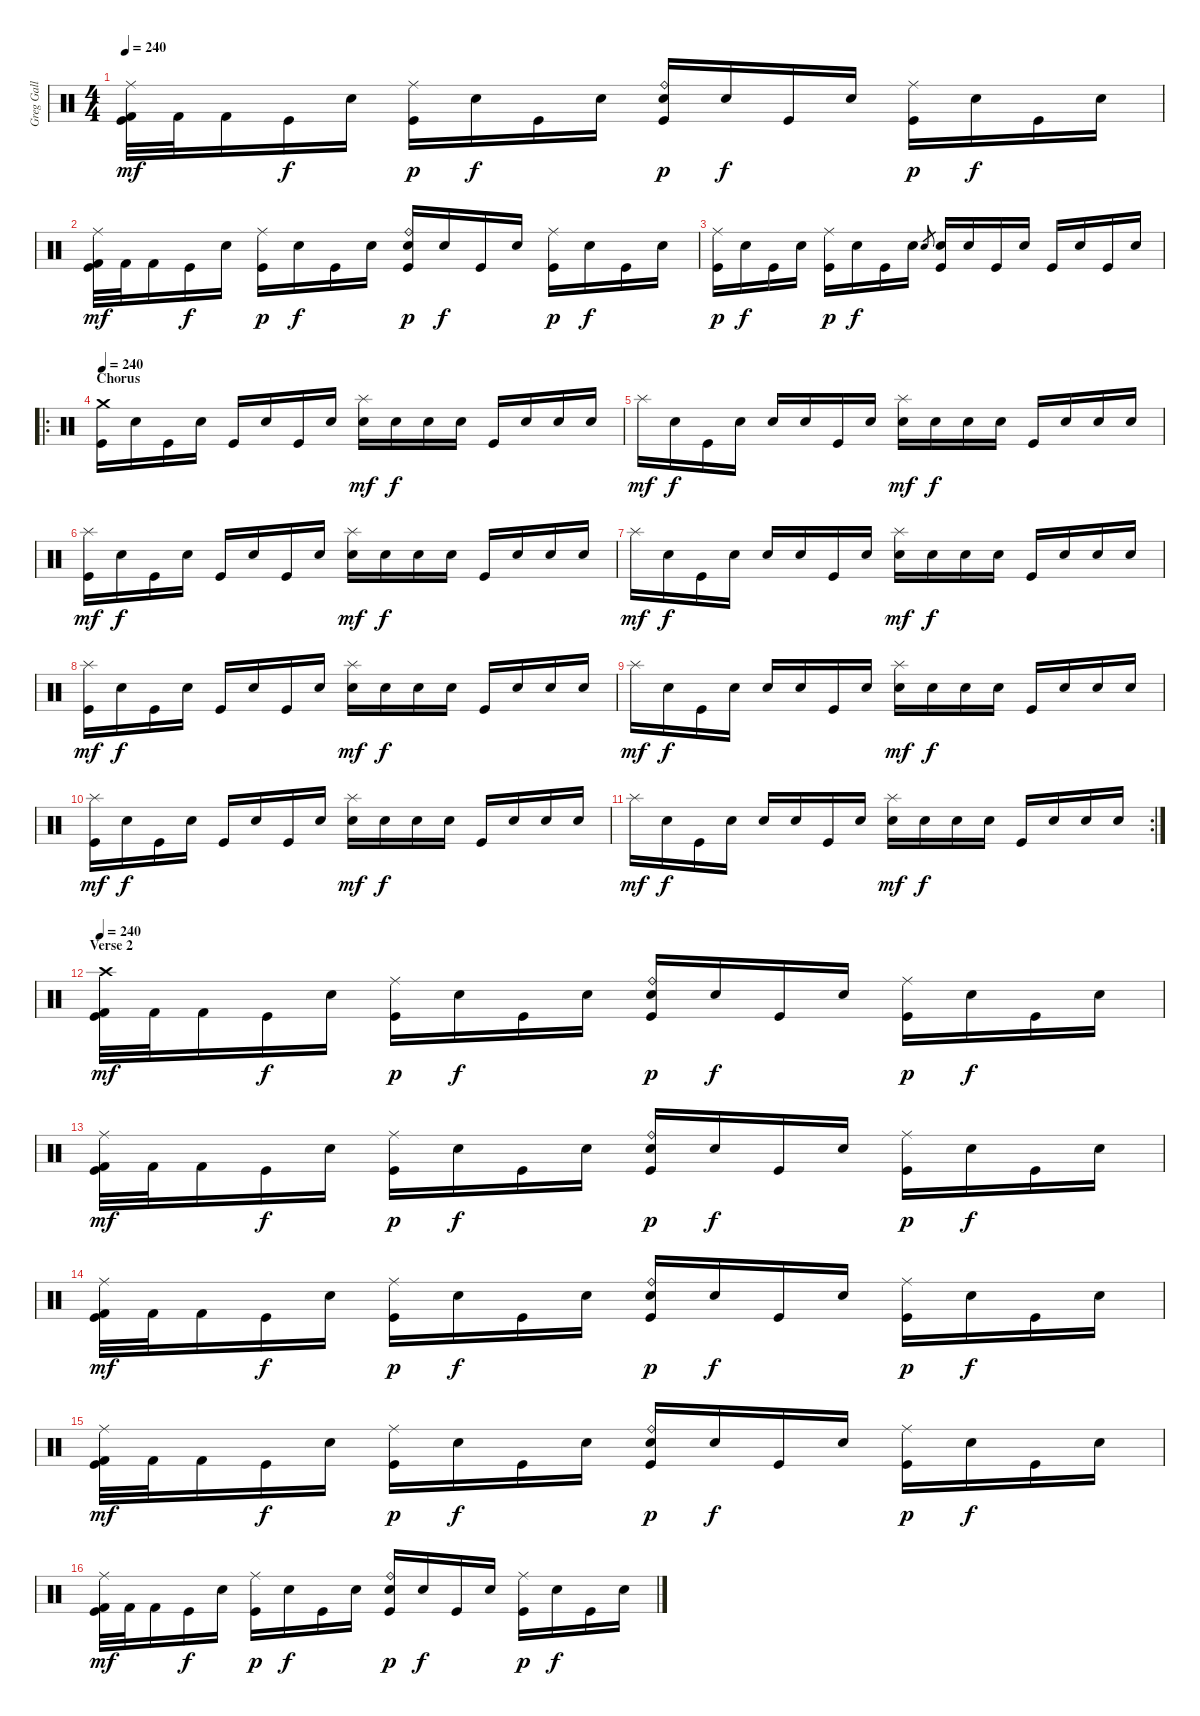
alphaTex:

\track ("Greg Gall - Drums" "Greg Gall ") {instrument percussion}
\staff {score}
\articulation defaults
\ts (4 4)
\tempo 240
\clef neutral
\ks c
("Ride (middle)" "Kick (hit) 2" "Kick (hit)").32{dy mf} "Kick (hit) 2".32 "Kick (hit) 2".16 "Kick (hit)".16{dy f} "Snare (hit)".16 ("Ride (middle)" "Kick (hit)").16{dy p} "Snare (hit)".16{dy f} "Kick (hit)".16 "Snare (hit)".16 ("Ride (bell)" "Electric Snare (hit)" "Kick (hit)").16{dy p} "Snare (hit)".16{dy f} "Kick (hit)".16 "Snare (hit)".16 ("Ride (middle)" "Kick (hit)").16{dy p} "Snare (hit)".16{dy f} "Kick (hit)".16 "Snare (hit)".16 |
("Ride (middle)" "Kick (hit) 2" "Kick (hit)").32{dy mf} "Kick (hit) 2".32 "Kick (hit) 2".16 "Kick (hit)".16{dy f} "Snare (hit)".16 ("Ride (middle)" "Kick (hit)").16{dy p} "Snare (hit)".16{dy f} "Kick (hit)".16 "Snare (hit)".16 ("Ride (bell)" "Electric Snare (hit)" "Kick (hit)").16{dy p} "Snare (hit)".16{dy f} "Kick (hit)".16 "Snare (hit)".16 ("Ride (middle)" "Kick (hit)").16{dy p} "Snare (hit)".16{dy f} "Kick (hit)".16 "Snare (hit)".16 |
("Ride (middle)" "Kick (hit)").16{dy p} "Snare (hit)".16{dy f} "Kick (hit)".16 "Snare (hit)".16 ("Ride (middle)" "Kick (hit)").16{dy p} "Snare (hit)".16{dy f} "Kick (hit)".16 "Snare (hit)".16 "Electric Snare (hit)".8{gr} ("Electric Snare (hit)" "Kick (hit)").16 "Snare (hit)".16 "Kick (hit)".16 "Snare (hit)".16 "Kick (hit)".16 "Snare (hit)".16 "Kick (hit)".16 "Snare (hit)".16 |
\ro
\section ("" "Chorus")
\tempo 240
("Crash medium (hit)" "Kick (hit)").16{volume 12 balance 8} "Snare (hit)".16 "Kick (hit)".16 "Snare (hit)".16 "Kick (hit)".16 "Snare (hit)".16 "Kick (hit)".16 "Snare (hit)".16 ("Splash (hit)" "Electric Snare (hit)").16{dy mf} "Snare (hit)".16{dy f} "Snare (hit)".16 "Snare (hit)".16 "Kick (hit)".16 "Snare (hit)".16 "Snare (hit)".16 "Snare (hit)".16 |
"Splash (hit)".16{dy mf} "Snare (hit)".16{dy f} "Kick (hit)".16 "Snare (hit)".16 "Snare (hit)".16 "Snare (hit)".16 "Kick (hit)".16 "Snare (hit)".16 ("Splash (hit)" "Electric Snare (hit)").16{dy mf} "Snare (hit)".16{dy f} "Snare (hit)".16 "Snare (hit)".16 "Kick (hit)".16 "Snare (hit)".16 "Snare (hit)".16 "Snare (hit)".16 |
("Splash (hit)" "Kick (hit)").16{dy mf} "Snare (hit)".16{dy f} "Kick (hit)".16 "Snare (hit)".16 "Kick (hit)".16 "Snare (hit)".16 "Kick (hit)".16 "Snare (hit)".16 ("Splash (hit)" "Electric Snare (hit)").16{dy mf} "Snare (hit)".16{dy f} "Snare (hit)".16 "Snare (hit)".16 "Kick (hit)".16 "Snare (hit)".16 "Snare (hit)".16 "Snare (hit)".16 |
"Splash (hit)".16{dy mf} "Snare (hit)".16{dy f} "Kick (hit)".16 "Snare (hit)".16 "Snare (hit)".16 "Snare (hit)".16 "Kick (hit)".16 "Snare (hit)".16 ("Splash (hit)" "Electric Snare (hit)").16{dy mf} "Snare (hit)".16{dy f} "Snare (hit)".16 "Snare (hit)".16 "Kick (hit)".16 "Snare (hit)".16 "Snare (hit)".16 "Snare (hit)".16 |
("Splash (hit)" "Kick (hit)").16{dy mf} "Snare (hit)".16{dy f} "Kick (hit)".16 "Snare (hit)".16 "Kick (hit)".16 "Snare (hit)".16 "Kick (hit)".16 "Snare (hit)".16 ("Splash (hit)" "Electric Snare (hit)").16{dy mf} "Snare (hit)".16{dy f} "Snare (hit)".16 "Snare (hit)".16 "Kick (hit)".16 "Snare (hit)".16 "Snare (hit)".16 "Snare (hit)".16 |
"Splash (hit)".16{dy mf} "Snare (hit)".16{dy f} "Kick (hit)".16 "Snare (hit)".16 "Snare (hit)".16 "Snare (hit)".16 "Kick (hit)".16 "Snare (hit)".16 ("Splash (hit)" "Electric Snare (hit)").16{dy mf} "Snare (hit)".16{dy f} "Snare (hit)".16 "Snare (hit)".16 "Kick (hit)".16 "Snare (hit)".16 "Snare (hit)".16 "Snare (hit)".16 |
("Splash (hit)" "Kick (hit)").16{dy mf} "Snare (hit)".16{dy f} "Kick (hit)".16 "Snare (hit)".16 "Kick (hit)".16 "Snare (hit)".16 "Kick (hit)".16 "Snare (hit)".16 ("Splash (hit)" "Electric Snare (hit)").16{dy mf} "Snare (hit)".16{dy f} "Snare (hit)".16 "Snare (hit)".16 "Kick (hit)".16 "Snare (hit)".16 "Snare (hit)".16 "Snare (hit)".16 |
\rc 2 "Splash (hit)".16{dy mf} "Snare (hit)".16{dy f} "Kick (hit)".16 "Snare (hit)".16 "Snare (hit)".16 "Snare (hit)".16 "Kick (hit)".16 "Snare (hit)".16
("Splash (hit)" "Electric Snare (hit)").16{dy mf} "Snare (hit)".16{dy f} "Snare (hit)".16 "Snare (hit)".16 "Kick (hit)".16 "Snare (hit)".16 "Snare (hit)".16 "Snare (hit)".16 |
\section ("" "Verse 2")
\tempo 240
("Crash high (hit)" "Kick (hit) 2" "Kick (hit)").32{dy mf volume 12 balance 8} "Kick (hit) 2".32 "Kick (hit) 2".16 "Kick (hit)".16{dy f} "Snare (hit)".16 ("Ride (middle)" "Kick (hit)").16{dy p} "Snare (hit)".16{dy f} "Kick (hit)".16 "Snare (hit)".16 ("Ride (bell)" "Electric Snare (hit)" "Kick (hit)").16{dy p} "Snare (hit)".16{dy f} "Kick (hit)".16 "Snare (hit)".16 ("Ride (middle)" "Kick (hit)").16{dy p} "Snare (hit)".16{dy f} "Kick (hit)".16 "Snare (hit)".16 |
("Ride (middle)" "Kick (hit) 2" "Kick (hit)").32{dy mf} "Kick (hit) 2".32 "Kick (hit) 2".16 "Kick (hit)".16{dy f} "Snare (hit)".16 ("Ride (middle)" "Kick (hit)").16{dy p} "Snare (hit)".16{dy f} "Kick (hit)".16 "Snare (hit)".16 ("Ride (bell)" "Electric Snare (hit)" "Kick (hit)").16{dy p} "Snare (hit)".16{dy f} "Kick (hit)".16 "Snare (hit)".16 ("Ride (middle)" "Kick (hit)").16{dy p} "Snare (hit)".16{dy f} "Kick (hit)".16 "Snare (hit)".16 |
("Ride (middle)" "Kick (hit) 2" "Kick (hit)").32{dy mf} "Kick (hit) 2".32 "Kick (hit) 2".16 "Kick (hit)".16{dy f} "Snare (hit)".16 ("Ride (middle)" "Kick (hit)").16{dy p} "Snare (hit)".16{dy f} "Kick (hit)".16 "Snare (hit)".16 ("Ride (bell)" "Electric Snare (hit)" "Kick (hit)").16{dy p} "Snare (hit)".16{dy f} "Kick (hit)".16 "Snare (hit)".16 ("Ride (middle)" "Kick (hit)").16{dy p} "Snare (hit)".16{dy f} "Kick (hit)".16 "Snare (hit)".16 |
("Ride (middle)" "Kick (hit) 2" "Kick (hit)").32{dy mf} "Kick (hit) 2".32 "Kick (hit) 2".16 "Kick (hit)".16{dy f} "Snare (hit)".16 ("Ride (middle)" "Kick (hit)").16{dy p} "Snare (hit)".16{dy f} "Kick (hit)".16 "Snare (hit)".16 ("Ride (bell)" "Electric Snare (hit)" "Kick (hit)").16{dy p} "Snare (hit)".16{dy f} "Kick (hit)".16 "Snare (hit)".16 ("Ride (middle)" "Kick (hit)").16{dy p} "Snare (hit)".16{dy f} "Kick (hit)".16 "Snare (hit)".16 |
("Ride (middle)" "Kick (hit) 2" "Kick (hit)").32{dy mf} "Kick (hit) 2".32 "Kick (hit) 2".16 "Kick (hit)".16{dy f} "Snare (hit)".16 ("Ride (middle)" "Kick (hit)").16{dy p} "Snare (hit)".16{dy f} "Kick (hit)".16 "Snare (hit)".16 ("Ride (bell)" "Electric Snare (hit)" "Kick (hit)").16{dy p} "Snare (hit)".16{dy f} "Kick (hit)".16 "Snare (hit)".16 ("Ride (middle)" "Kick (hit)").16{dy p} "Snare (hit)".16{dy f} "Kick (hit)".16 "Snare (hit)".16
